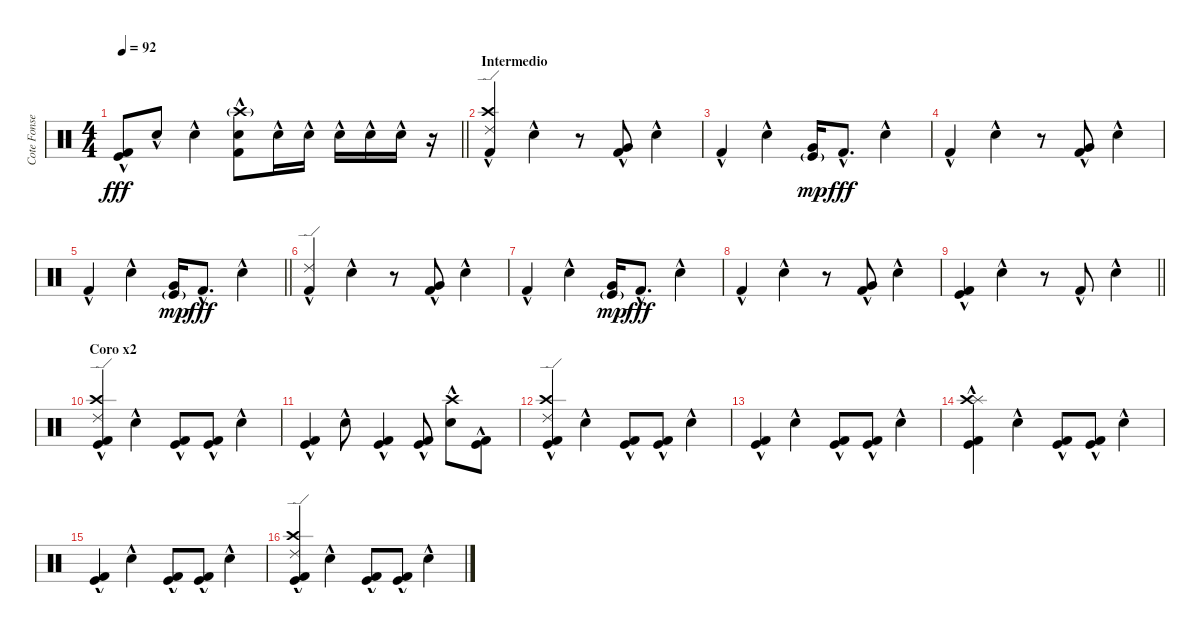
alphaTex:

\track ("Cote Fonsea" "Cote Fonse") {instrument percussion}
\staff {score}
\articulation defaults
\ts (4 4)
\tempo 92
\clef neutral
\barLineRight lightlight
\ks c
("Kick (hit) 2"{hac} "Kick (hit)"{hac}).8{dy fff} "Snare (hit) 2"{hac}.8 "Snare (hit) 2"{hac}.4 ("Crash high (hit)"{g} "Snare (hit) 2"{hac} "Kick (hit) 2").8 "Snare (hit) 2"{hac}.16 "Snare (hit) 2"{hac}.16 "Snare (hit) 2"{hac}.16 "Snare (hit) 2"{hac}.16 "Snare (hit) 2"{hac}.16 r.16 |
\section ("" "Intermedio")
("Ride (edge) 2" "Crash high (hit)" "Kick (hit) 2"{hac}).4 "Snare (hit) 2"{hac}.4 r.8 ("Kick (hit) 2"{hac} "Very Low Tom (hit)"{hac}).8 "Snare (hit) 2"{hac}.4 |
"Kick (hit) 2"{hac}.4 "Snare (hit) 2"{hac}.4 ("Very Low Tom (hit)" "Kick (hit)"{g}).16{dy mp} "Kick (hit) 2"{hac}.8{d dy fff} "Snare (hit) 2"{hac}.4 |
"Kick (hit) 2"{hac}.4 "Snare (hit) 2"{hac}.4 r.8 ("Kick (hit) 2"{hac} "Very Low Tom (hit)"{hac}).8 "Snare (hit) 2"{hac}.4 |
\barLineRight lightlight "Kick (hit) 2"{hac}.4 "Snare (hit) 2"{hac}.4
("Very Low Tom (hit)" "Kick (hit)"{g}).16{dy mp} "Kick (hit) 2"{hac}.8{d dy fff} "Snare (hit) 2"{hac}.4 |
("Ride (edge) 2" "Kick (hit) 2"{hac}).4 "Snare (hit) 2"{hac}.4 r.8 ("Kick (hit) 2"{hac} "Very Low Tom (hit)"{hac}).8 "Snare (hit) 2"{hac}.4 |
"Kick (hit) 2"{hac}.4 "Snare (hit) 2"{hac}.4 ("Very Low Tom (hit)" "Kick (hit)"{g}).16{dy mp} "Kick (hit) 2"{hac}.8{d dy fff} "Snare (hit) 2"{hac}.4 |
"Kick (hit) 2"{hac}.4 "Snare (hit) 2"{hac}.4 r.8 ("Kick (hit) 2"{hac} "Very Low Tom (hit)"{hac}).8 "Snare (hit) 2"{hac}.4 |
\barLineRight lightlight
("Kick (hit) 2"{hac} "Kick (hit)"{hac}).4 "Snare (hit) 2"{hac}.4 r.8 "Kick (hit) 2"{hac}.8 "Snare (hit) 2"{hac}.4 |
\section ("" "Coro x2")
("Ride (edge) 2" "Crash high (hit)" "Kick (hit) 2"{hac} "Kick (hit)"{hac}).4 "Snare (hit) 2"{hac}.4 ("Kick (hit) 2"{hac} "Kick (hit)").8 ("Kick (hit) 2"{hac} "Kick (hit)").8 "Snare (hit) 2"{hac}.4 |
("Kick (hit) 2"{hac} "Kick (hit)"{hac}).4 "Snare (hit) 2"{hac}.8 ("Kick (hit) 2"{hac} "Kick (hit)").4 ("Kick (hit) 2"{hac} "Kick (hit)").8 ("Crash high (hit)" "Snare (hit) 2"{hac}).8 ("Kick (hit) 2"{hac} "Kick (hit)"{hac}).8 |
("Ride (edge) 2" "Crash high (hit)" "Kick (hit) 2"{hac} "Kick (hit)"{hac}).4 "Snare (hit) 2"{hac}.4 ("Kick (hit) 2"{hac} "Kick (hit)").8 ("Kick (hit) 2"{hac} "Kick (hit)").8 "Snare (hit) 2"{hac}.4 |
("Kick (hit) 2"{hac} "Kick (hit)"{hac}).4 "Snare (hit) 2"{hac}.4 ("Kick (hit) 2"{hac} "Kick (hit)").8 ("Kick (hit) 2"{hac} "Kick (hit)").8 "Snare (hit) 2"{hac}.4 |
("Splash (hit)" "Crash high (hit)" "Kick (hit) 2"{hac} "Kick (hit)"{hac}).4 "Snare (hit) 2"{hac}.4 ("Kick (hit) 2"{hac} "Kick (hit)").8 ("Kick (hit) 2"{hac} "Kick (hit)").8 "Snare (hit) 2"{hac}.4 |
("Kick (hit) 2"{hac} "Kick (hit)"{hac}).4 "Snare (hit) 2"{hac}.4 ("Kick (hit) 2"{hac} "Kick (hit)").8 ("Kick (hit) 2"{hac} "Kick (hit)").8 "Snare (hit) 2"{hac}.4 |
("Crash high (hit)" "Ride (edge) 2" "Kick (hit) 2"{hac} "Kick (hit)"{hac}).4 "Snare (hit) 2"{hac}.4 ("Kick (hit) 2"{hac} "Kick (hit)").8 ("Kick (hit) 2"{hac} "Kick (hit)").8 "Snare (hit) 2"{hac}.4
